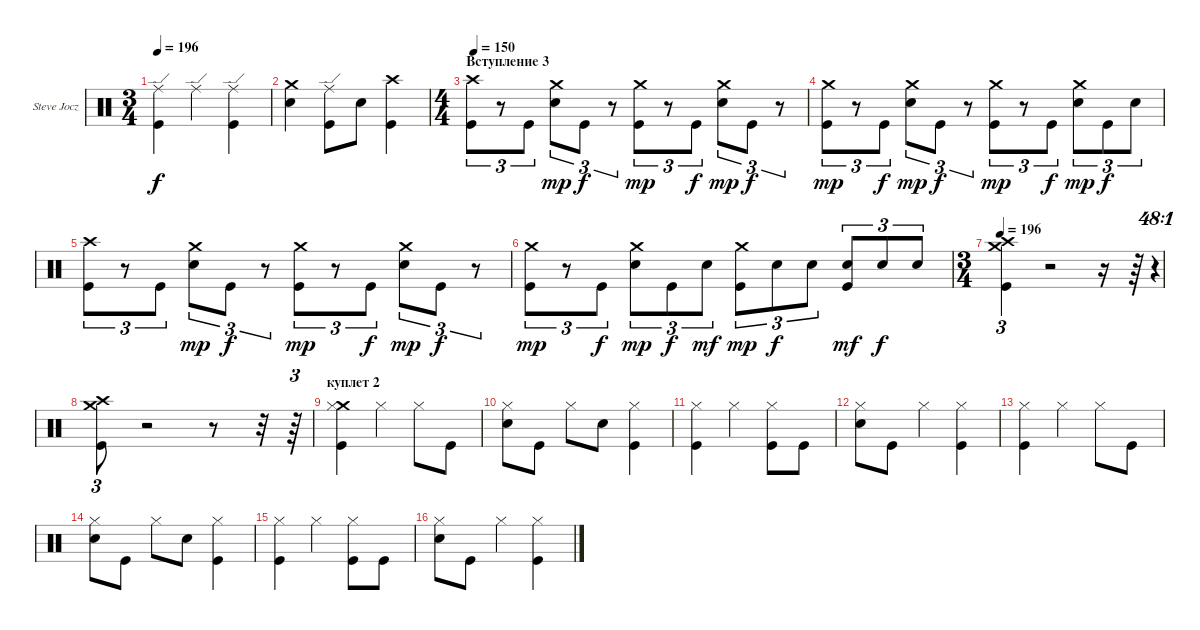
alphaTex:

\defaultSystemsLayout 4
\bracketExtendMode groupsimilarinstruments
\firstSystemTrackNameOrientation horizontal
\otherSystemsTrackNameOrientation horizontal
\track ("Steve Jocz " "Steve Jocz") {instrument percussion}
\staff {score}
\articulation defaults
\ts (3 4)
\tempo 196
\clef neutral
\scale
0.333333
\ks c
("Ride (edge)" "Kick (hit)").4{dy f} "Ride (edge)".4 ("Ride (edge)" "Kick (hit)").4 |
\scale
0.333333 ("Crash medium (hit)" "Snare (hit) 2").4 ("Ride (edge)" "Kick (hit)").8 "Snare (hit) 2".8 ("Crash high (hit)" "Kick (hit)").4 |
\ts (4 4)
\section ("" "Вступление 3")
\tempo (150 0.00625)
\scale
0.333333 ("Crash high (hit)" "Kick (hit)").8{tu (3 2)} r.8{tu (3 2)} "Kick (hit)".8{tu (3 2)} ("Crash medium (hit)" "Snare (hit) 2").8{tu (3 2) dy mp} "Kick (hit)".8{tu (3 2) dy f} r.8{tu (3 2)} ("Crash medium (hit)" "Kick (hit)").8{tu (3 2) dy mp} r.8{tu (3 2)} "Kick (hit)".8{tu (3 2) dy f} ("Crash medium (hit)" "Snare (hit) 2").8{tu (3 2) dy mp} "Kick (hit)".8{tu (3 2) dy f} r.8{tu (3 2)} |
\scale
0.333333 ("Crash medium (hit)" "Kick (hit)").8{tu (3 2) dy mp} r.8{tu (3 2)} "Kick (hit)".8{tu (3 2) dy f} ("Crash medium (hit)" "Snare (hit) 2").8{tu (3 2) dy mp} "Kick (hit)".8{tu (3 2) dy f} r.8{tu (3 2)} ("Crash medium (hit)" "Kick (hit)").8{tu (3 2) dy mp} r.8{tu (3 2)} "Kick (hit)".8{tu (3 2) dy f} ("Crash medium (hit)" "Snare (hit) 2").8{tu (3 2) dy mp} "Kick (hit)".8{tu (3 2) dy f} "Snare (hit) 2".8{tu (3 2)} |
\scale
0.333333 ("Crash high (hit)" "Kick (hit)").8{tu (3 2)} r.8{tu (3 2)} "Kick (hit)".8{tu (3 2)} ("Crash medium (hit)" "Snare (hit) 2").8{tu (3 2) dy mp} "Kick (hit)".8{tu (3 2) dy f} r.8{tu (3 2)} ("Crash medium (hit)" "Kick (hit)").8{tu (3 2) dy mp} r.8{tu (3 2)} "Kick (hit)".8{tu (3 2) dy f} ("Crash medium (hit)" "Snare (hit) 2").8{tu (3 2) dy mp} "Kick (hit)".8{tu (3 2) dy f} r.8{tu (3 2)} |
\scale
0.333333 ("Crash medium (hit)" "Kick (hit)").8{tu (3 2) dy mp} r.8{tu (3 2)} "Kick (hit)".8{tu (3 2) dy f} ("Crash medium (hit)" "Snare (hit) 2").8{tu (3 2) dy mp} "Kick (hit)".8{tu (3 2) dy f} "Snare (hit) 2".8{tu (3 2) dy mf} ("Crash medium (hit)" "Kick (hit)").8{tu (3 2) dy mp} "Snare (hit) 2".8{tu (3 2) dy f} "Snare (hit) 2".8{tu (3 2)} ("Kick (hit)" "Snare (hit) 2").8{tu (3 2) dy mf} "Snare (hit) 2".8{tu (3 2) dy f} "Snare (hit) 2".8{tu (3 2)} |
\ts (3 4)
\tempo 196
\scale
0.333333 ("Crash high (hit)" "Crash medium (hit)" "Kick (hit)").4{tu (3 2)} r.2 r.16 r.64 r.4{tu (48 1)} |
\scale
0.333333 ("Crash high (hit)" "Crash medium (hit)" "Kick (hit)").8{tu (3 2)} r.2 r.8 r.32 r.64{tu (3 2)} |
\section ("" "куплет 2")
\scale
0.333333 ("Crash medium (hit)" "Hi-Hat (closed)" "Kick (hit)").4 "Hi-Hat (closed)".4 "Hi-Hat (closed)".8 "Kick (hit)".8 |
("Hi-Hat (closed)" "Snare (hit) 2").8 "Kick (hit)".8 "Hi-Hat (closed)".8 "Snare (hit) 2".8 ("Hi-Hat (closed)" "Kick (hit)").4 |
("Hi-Hat (closed)" "Kick (hit)").4 "Hi-Hat (closed)".4 ("Hi-Hat (closed)" "Kick (hit)").8 "Kick (hit)".8 |
("Hi-Hat (closed)" "Snare (hit) 2").8 "Kick (hit)".8 "Hi-Hat (closed)".4 ("Hi-Hat (closed)" "Kick (hit)").4 |
("Hi-Hat (closed)" "Kick (hit)").4 "Hi-Hat (closed)".4 "Hi-Hat (closed)".8 "Kick (hit)".8 |
("Hi-Hat (closed)" "Snare (hit) 2").8 "Kick (hit)".8 "Hi-Hat (closed)".8 "Snare (hit) 2".8 ("Hi-Hat (closed)" "Kick (hit)").4 |
("Hi-Hat (closed)" "Kick (hit)").4 "Hi-Hat (closed)".4 ("Hi-Hat (closed)" "Kick (hit)").8 "Kick (hit)".8 |
("Hi-Hat (closed)" "Snare (hit) 2").8 "Kick (hit)".8 "Hi-Hat (closed)".4 ("Hi-Hat (closed)" "Kick (hit)").4
